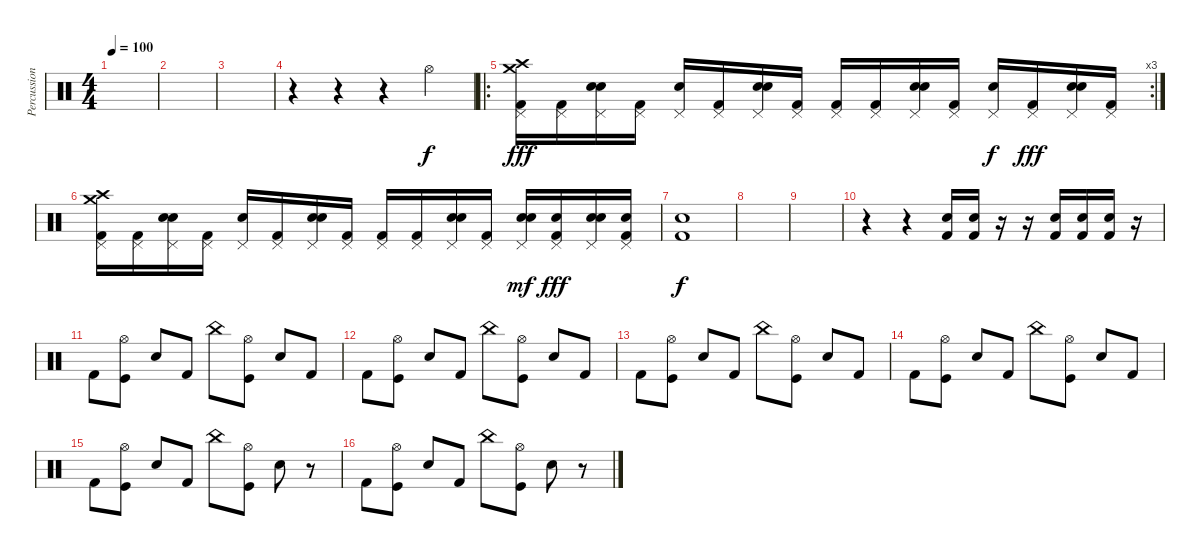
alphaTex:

\track ("Percussions" "Percussion") {instrument percussion}
\staff {score}
\articulation defaults
\ts (4 4)
\tempo 100
\clef neutral
\ks c
|
|
|
r.4 r.4 r.4 "Hi-Hat (open)".4 |
\ro
\rc 3
("Crash high (hit)" "Crash medium (hit)" "Pedal Hi-Hat (hit)" "Kick (hit) 2").16{dy fff} ("Pedal Hi-Hat (hit)" "Kick (hit) 2").16 ("Snare (hit) 2" "Pedal Hi-Hat (hit)" "Snare (hit)").16 ("Pedal Hi-Hat (hit)" "Kick (hit) 2").16 ("Pedal Hi-Hat (hit)" "Snare (hit)").16 ("Pedal Hi-Hat (hit)" "Kick (hit) 2").16 ("Snare (hit) 2" "Pedal Hi-Hat (hit)" "Snare (hit)").16 ("Pedal Hi-Hat (hit)" "Kick (hit) 2").16 ("Pedal Hi-Hat (hit)" "Kick (hit) 2").16 ("Pedal Hi-Hat (hit)" "Kick (hit) 2").16 ("Snare (hit) 2" "Pedal Hi-Hat (hit)" "Snare (hit)").16 ("Pedal Hi-Hat (hit)" "Kick (hit) 2").16 ("Pedal Hi-Hat (hit)" "Snare (hit)").16{dy f} ("Pedal Hi-Hat (hit)" "Kick (hit) 2").16{dy fff} ("Snare (hit) 2" "Pedal Hi-Hat (hit)" "Snare (hit)").16 ("Pedal Hi-Hat (hit)" "Kick (hit) 2").16 |
("Crash high (hit)" "Crash medium (hit)" "Pedal Hi-Hat (hit)" "Kick (hit) 2").16 ("Pedal Hi-Hat (hit)" "Kick (hit) 2").16 ("Snare (hit) 2" "Pedal Hi-Hat (hit)" "Snare (hit)").16 ("Pedal Hi-Hat (hit)" "Kick (hit) 2").16 ("Pedal Hi-Hat (hit)" "Snare (hit)").16 ("Pedal Hi-Hat (hit)" "Kick (hit) 2").16 ("Snare (hit) 2" "Pedal Hi-Hat (hit)" "Snare (hit)").16 ("Pedal Hi-Hat (hit)" "Kick (hit) 2").16 ("Pedal Hi-Hat (hit)" "Kick (hit) 2").16 ("Pedal Hi-Hat (hit)" "Kick (hit) 2").16 ("Snare (hit) 2" "Pedal Hi-Hat (hit)" "Snare (hit)").16 ("Pedal Hi-Hat (hit)" "Kick (hit) 2").16 ("Electric Snare (hit)" "Pedal Hi-Hat (hit)" "Snare (hit)").16{dy mf} ("Electric Snare (hit)" "Pedal Hi-Hat (hit)" "Kick (hit) 2").16{dy fff} ("Snare (hit) 2" "Pedal Hi-Hat (hit)" "Snare (hit)").16 ("Electric Snare (hit)" "Pedal Hi-Hat (hit)" "Kick (hit) 2").16 |
("Electric Snare (hit)" "Kick (hit) 2").1{dy f} |
|
|
r.4 r.4 ("Snare (hit) 2" "Kick (hit) 2").16 ("Snare (hit) 2" "Kick (hit) 2").16 r.16 r.16 ("Snare (hit) 2" "Kick (hit) 2").16 ("Snare (hit) 2" "Kick (hit) 2").16 ("Snare (hit) 2" "Kick (hit) 2").16 r.16 |
"Kick (hit) 2".8 ("Hi-Hat (open)" "Kick (hit)").8 "Snare (hit) 2".8 "Kick (hit) 2".8 "China (hit)".8 ("Hi-Hat (open)" "Kick (hit)").8 "Snare (hit) 2".8 "Kick (hit) 2".8 |
"Kick (hit) 2".8 ("Hi-Hat (open)" "Kick (hit)").8 "Snare (hit) 2".8 "Kick (hit) 2".8 "China (hit)".8 ("Hi-Hat (open)" "Kick (hit)").8 "Snare (hit) 2".8 "Kick (hit) 2".8 |
"Kick (hit) 2".8 ("Hi-Hat (open)" "Kick (hit)").8 "Snare (hit) 2".8 "Kick (hit) 2".8 "China (hit)".8 ("Hi-Hat (open)" "Kick (hit)").8 "Snare (hit) 2".8 "Kick (hit) 2".8 |
"Kick (hit) 2".8 ("Hi-Hat (open)" "Kick (hit)").8 "Snare (hit) 2".8 "Kick (hit) 2".8 "China (hit)".8 ("Hi-Hat (open)" "Kick (hit)").8 "Snare (hit) 2".8 "Kick (hit) 2".8 |
"Kick (hit) 2".8 ("Hi-Hat (open)" "Kick (hit)").8 "Snare (hit) 2".8 "Kick (hit) 2".8 "China (hit)".8 ("Hi-Hat (open)" "Kick (hit)").8 "Snare (hit) 2".8 r.8 |
"Kick (hit) 2".8 ("Hi-Hat (open)" "Kick (hit)").8 "Snare (hit) 2".8 "Kick (hit) 2".8 "China (hit)".8 ("Hi-Hat (open)" "Kick (hit)").8 "Snare (hit) 2".8 r.8
